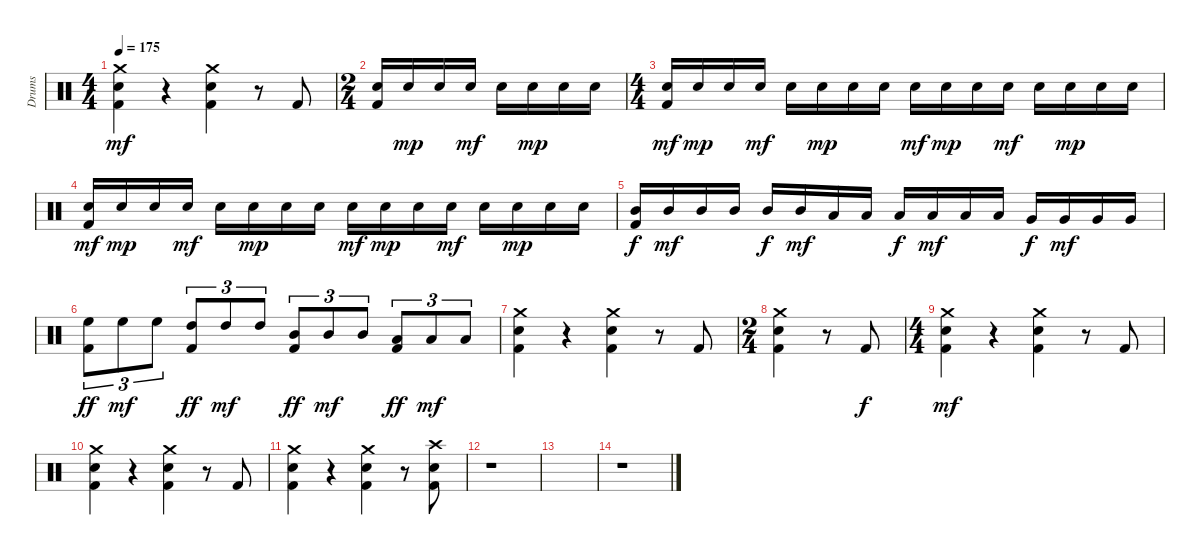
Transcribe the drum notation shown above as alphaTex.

\track ("Drums" "Drums") {instrument percussion}
\staff {score}
\articulation defaults
\ts (4 4)
\tempo 175
\clef neutral
\ks c
("Crash medium (hit)" "Electric Snare (hit)" "Kick (hit) 2").4{dy mf} r.4 ("Crash medium (hit)" "Electric Snare (hit)" "Kick (hit) 2").4 r.8 "Kick (hit) 2".8 |
\ts (2 4)
("Electric Snare (hit)" "Kick (hit) 2").16 "Electric Snare (hit)".16{dy mp} "Electric Snare (hit)".16 "Electric Snare (hit)".16{dy mf} "Electric Snare (hit)".16 "Electric Snare (hit)".16{dy mp} "Electric Snare (hit)".16 "Electric Snare (hit)".16 |
\ts (4 4)
("Electric Snare (hit)" "Kick (hit) 2").16{dy mf} "Electric Snare (hit)".16{dy mp} "Electric Snare (hit)".16 "Electric Snare (hit)".16{dy mf} "Electric Snare (hit)".16 "Electric Snare (hit)".16{dy mp} "Electric Snare (hit)".16 "Electric Snare (hit)".16 "Electric Snare (hit)".16{dy mf} "Electric Snare (hit)".16{dy mp} "Electric Snare (hit)".16 "Electric Snare (hit)".16{dy mf} "Electric Snare (hit)".16 "Electric Snare (hit)".16{dy mp} "Electric Snare (hit)".16 "Electric Snare (hit)".16 |
("Electric Snare (hit)" "Kick (hit) 2").16{dy mf} "Electric Snare (hit)".16{dy mp} "Electric Snare (hit)".16 "Electric Snare (hit)".16{dy mf} "Electric Snare (hit)".16 "Electric Snare (hit)".16{dy mp} "Electric Snare (hit)".16 "Electric Snare (hit)".16 "Electric Snare (hit)".16{dy mf} "Electric Snare (hit)".16{dy mp} "Electric Snare (hit)".16 "Electric Snare (hit)".16{dy mf} "Electric Snare (hit)".16 "Electric Snare (hit)".16{dy mp} "Electric Snare (hit)".16 "Electric Snare (hit)".16 |
("Mid Tom (hit)" "Kick (hit) 2").16{dy f} "Mid Tom (hit)".16{dy mf} "Mid Tom (hit)".16 "Mid Tom (hit)".16 "Mid Tom (hit)".16{dy f} "Mid Tom (hit)".16{dy mf} "Low Tom (hit)".16 "Low Tom (hit)".16 "Low Tom (hit)".16{dy f} "Low Tom (hit)".16{dy mf} "Low Tom (hit)".16 "Low Tom (hit)".16 "Very Low Tom (hit)".16{dy f} "Very Low Tom (hit)".16{dy mf} "Very Low Tom (hit)".16 "Very Low Tom (hit)".16 |
("High Floor Tom (hit)" "Kick (hit) 2").8{tu (3 2) dy ff} "High Floor Tom (hit)".8{tu (3 2) dy mf} "High Floor Tom (hit)".8{tu (3 2)} ("High Tom (hit)" "Kick (hit) 2").8{tu (3 2) dy ff} "High Tom (hit)".8{tu (3 2) dy mf} "High Tom (hit)".8{tu (3 2)} ("Mid Tom (hit)" "Kick (hit) 2").8{tu (3 2) dy ff} "Mid Tom (hit)".8{tu (3 2) dy mf} "Mid Tom (hit)".8{tu (3 2)} ("Low Tom (hit)" "Kick (hit) 2").8{tu (3 2) dy ff} "Low Tom (hit)".8{tu (3 2) dy mf} "Low Tom (hit)".8{tu (3 2)} |
("Crash medium (hit)" "Electric Snare (hit)" "Kick (hit) 2").4 r.4 ("Crash medium (hit)" "Electric Snare (hit)" "Kick (hit) 2").4 r.8 "Kick (hit) 2".8 |
\ts (2 4)
("Crash medium (hit)" "Electric Snare (hit)" "Kick (hit) 2").4 r.8 "Kick (hit) 2".8{dy f} |
\ts (4 4)
("Crash medium (hit)" "Electric Snare (hit)" "Kick (hit) 2").4{dy mf} r.4 ("Crash medium (hit)" "Electric Snare (hit)" "Kick (hit) 2").4 r.8 "Kick (hit) 2".8 |
("Crash medium (hit)" "Electric Snare (hit)" "Kick (hit) 2").4 r.4 ("Crash medium (hit)" "Electric Snare (hit)" "Kick (hit) 2").4 r.8 "Kick (hit) 2".8 |
("Crash medium (hit)" "Electric Snare (hit)" "Kick (hit) 2").4 r.4 ("Crash medium (hit)" "Electric Snare (hit)" "Kick (hit) 2").4 r.8 ("Crash high (hit)" "Electric Snare (hit)" "Kick (hit) 2").8 |
r.1 |
|
r.1
